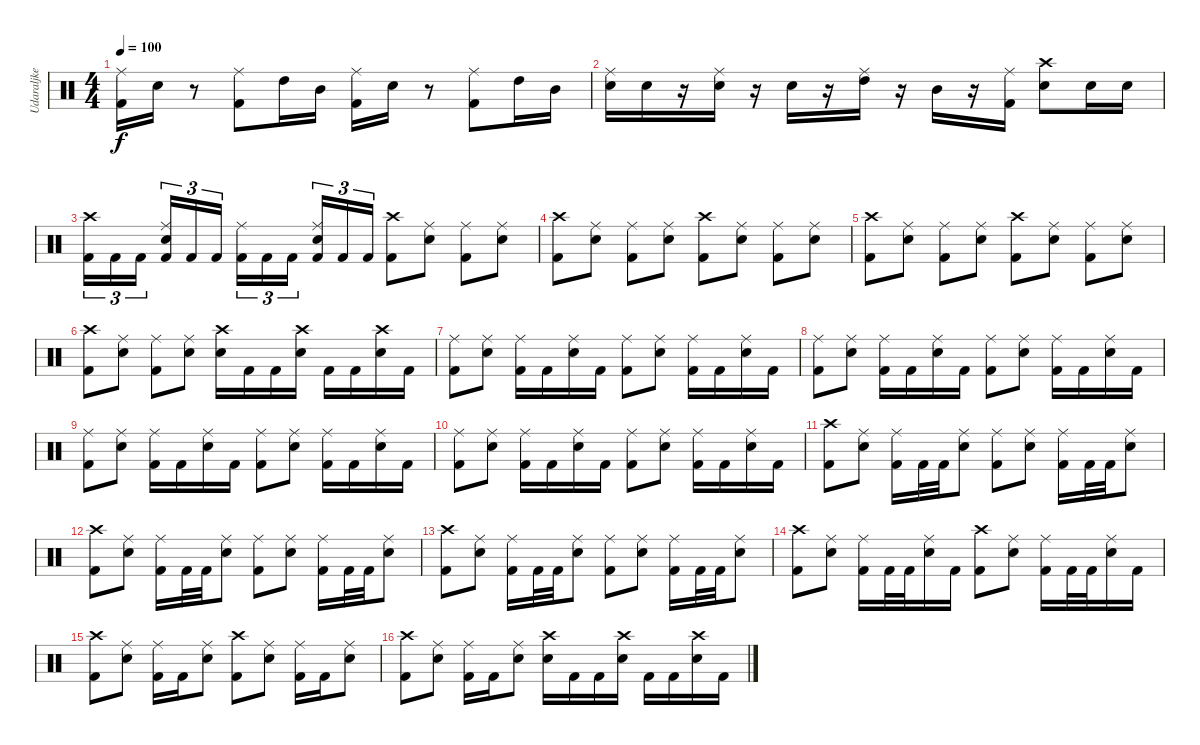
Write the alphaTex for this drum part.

\track ("Udaraljke" "Udaraljke") {instrument percussion}
\staff {score}
\articulation defaults
\ts (4 4)
\tempo 100
\clef neutral
\ks c
("Kick (hit) 2" "Ride (middle)").16{dy f} "Snare (hit) 2".16 r.8 ("Kick (hit) 2" "Ride (middle)").8 "High Tom (hit)".16 "Mid Tom (hit)".16 ("Kick (hit) 2" "Ride (middle)").16 "Snare (hit) 2".16 r.8 ("Kick (hit) 2" "Ride (middle)").8 "High Tom (hit)".16 "Mid Tom (hit)".16 |
("Snare (hit) 2" "Ride (middle)").16 "Snare (hit) 2".16 r.16 ("Snare (hit) 2" "Ride (middle)").16 r.16 "Snare (hit) 2".16 r.16 ("High Tom (hit)" "Ride (middle)").16 r.16 "Mid Tom (hit)".16 r.16 ("Kick (hit) 2" "Ride (middle)").16 ("Snare (hit) 2" "Crash high (hit)").8 "Snare (hit) 2".16 "Snare (hit) 2".16 |
("Kick (hit) 2" "Crash high (hit)").16{tu (3 2)} "Kick (hit) 2".16{tu (3 2)} "Kick (hit) 2".16{tu (3 2)} ("Kick (hit) 2" "Snare (hit) 2" "Ride (middle)").16{tu (3 2)} "Kick (hit) 2".16{tu (3 2)} "Kick (hit) 2".16{tu (3 2)} ("Kick (hit) 2" "Ride (middle)").16{tu (3 2)} "Kick (hit) 2".16{tu (3 2)} "Kick (hit) 2".16{tu (3 2)} ("Kick (hit) 2" "Snare (hit) 2" "Ride (middle)").16{tu (3 2)} "Kick (hit) 2".16{tu (3 2)} "Kick (hit) 2".16{tu (3 2)} ("Kick (hit) 2" "Crash high (hit)").8 ("Snare (hit) 2" "Ride (middle)").8 ("Kick (hit) 2" "Ride (middle)").8 ("Snare (hit) 2" "Ride (middle)").8 |
("Kick (hit) 2" "Crash high (hit)").8 ("Snare (hit) 2" "Ride (middle)").8 ("Kick (hit) 2" "Ride (middle)").8 ("Snare (hit) 2" "Ride (middle)").8 ("Kick (hit) 2" "Crash high (hit)").8 ("Snare (hit) 2" "Ride (middle)").8 ("Kick (hit) 2" "Ride (middle)").8 ("Snare (hit) 2" "Ride (middle)").8 |
("Kick (hit) 2" "Crash high (hit)").8 ("Snare (hit) 2" "Ride (middle)").8 ("Kick (hit) 2" "Ride (middle)").8 ("Snare (hit) 2" "Ride (middle)").8 ("Kick (hit) 2" "Crash high (hit)").8 ("Snare (hit) 2" "Ride (middle)").8 ("Kick (hit) 2" "Ride (middle)").8 ("Snare (hit) 2" "Ride (middle)").8 |
("Kick (hit) 2" "Crash high (hit)").8 ("Snare (hit) 2" "Ride (middle)").8 ("Kick (hit) 2" "Ride (middle)").8 ("Snare (hit) 2" "Ride (middle)").8 ("Snare (hit) 2" "Crash high (hit)").16 "Kick (hit) 2".16 "Kick (hit) 2".16 ("Snare (hit) 2" "Crash high (hit)").16 "Kick (hit) 2".16 "Kick (hit) 2".16 ("Snare (hit) 2" "Crash high (hit)").16 "Kick (hit) 2".16 |
("Kick (hit) 2" "Ride (middle)").8 ("Snare (hit) 2" "Ride (middle)").8 ("Kick (hit) 2" "Ride (middle)").16 "Kick (hit) 2".16 ("Snare (hit) 2" "Ride (middle)").16 "Kick (hit) 2".16 ("Kick (hit) 2" "Ride (middle)").8 ("Snare (hit) 2" "Ride (middle)").8 ("Kick (hit) 2" "Ride (middle)").16 "Kick (hit) 2".16 ("Snare (hit) 2" "Ride (middle)").16 "Kick (hit) 2".16 |
("Kick (hit) 2" "Ride (middle)").8 ("Snare (hit) 2" "Ride (middle)").8 ("Kick (hit) 2" "Ride (middle)").16 "Kick (hit) 2".16 ("Snare (hit) 2" "Ride (middle)").16 "Kick (hit) 2".16 ("Kick (hit) 2" "Ride (middle)").8 ("Snare (hit) 2" "Ride (middle)").8 ("Kick (hit) 2" "Ride (middle)").16 "Kick (hit) 2".16 ("Snare (hit) 2" "Ride (middle)").16 "Kick (hit) 2".16 |
("Kick (hit) 2" "Ride (middle)").8 ("Snare (hit) 2" "Ride (middle)").8 ("Kick (hit) 2" "Ride (middle)").16 "Kick (hit) 2".16 ("Snare (hit) 2" "Ride (middle)").16 "Kick (hit) 2".16 ("Kick (hit) 2" "Ride (middle)").8 ("Snare (hit) 2" "Ride (middle)").8 ("Kick (hit) 2" "Ride (middle)").16 "Kick (hit) 2".16 ("Snare (hit) 2" "Ride (middle)").16 "Kick (hit) 2".16 |
("Kick (hit) 2" "Ride (middle)").8 ("Snare (hit) 2" "Ride (middle)").8 ("Kick (hit) 2" "Ride (middle)").16 "Kick (hit) 2".16 ("Snare (hit) 2" "Ride (middle)").16 "Kick (hit) 2".16 ("Kick (hit) 2" "Ride (middle)").8 ("Snare (hit) 2" "Ride (middle)").8 ("Kick (hit) 2" "Ride (middle)").16 "Kick (hit) 2".16 ("Snare (hit) 2" "Ride (middle)").16 "Kick (hit) 2".16 |
("Kick (hit) 2" "Crash high (hit)").8 ("Snare (hit) 2" "Ride (middle)").8 ("Kick (hit) 2" "Ride (middle)").16 "Kick (hit) 2".32 "Kick (hit) 2".32 ("Snare (hit) 2" "Ride (middle)").8 ("Kick (hit) 2" "Ride (middle)").8 ("Snare (hit) 2" "Ride (middle)").8 ("Kick (hit) 2" "Ride (middle)").16 "Kick (hit) 2".32 "Kick (hit) 2".32 ("Snare (hit) 2" "Ride (middle)").8 |
("Kick (hit) 2" "Crash high (hit)").8 ("Snare (hit) 2" "Ride (middle)").8 ("Kick (hit) 2" "Ride (middle)").16 "Kick (hit) 2".32 "Kick (hit) 2".32 ("Snare (hit) 2" "Ride (middle)").8 ("Kick (hit) 2" "Ride (middle)").8 ("Snare (hit) 2" "Ride (middle)").8 ("Kick (hit) 2" "Ride (middle)").16 "Kick (hit) 2".32 "Kick (hit) 2".32 ("Snare (hit) 2" "Ride (middle)").8 |
("Kick (hit) 2" "Crash high (hit)").8 ("Snare (hit) 2" "Ride (middle)").8 ("Kick (hit) 2" "Ride (middle)").16 "Kick (hit) 2".32 "Kick (hit) 2".32 ("Snare (hit) 2" "Ride (middle)").8 ("Kick (hit) 2" "Ride (middle)").8 ("Snare (hit) 2" "Ride (middle)").8 ("Kick (hit) 2" "Ride (middle)").16 "Kick (hit) 2".32 "Kick (hit) 2".32 ("Snare (hit) 2" "Ride (middle)").8 |
("Kick (hit) 2" "Crash high (hit)").8 ("Snare (hit) 2" "Ride (middle)").8 ("Kick (hit) 2" "Ride (middle)").16 "Kick (hit) 2".32 "Kick (hit) 2".32 ("Snare (hit) 2" "Ride (middle)").16 "Kick (hit) 2".16 ("Kick (hit) 2" "Crash high (hit)").8 ("Snare (hit) 2" "Ride (middle)").8 ("Kick (hit) 2" "Ride (middle)").16 "Kick (hit) 2".32 "Kick (hit) 2".32 ("Snare (hit) 2" "Ride (middle)").16 "Kick (hit) 2".16 |
("Kick (hit) 2" "Crash high (hit)").8 ("Snare (hit) 2" "Ride (middle)").8 ("Kick (hit) 2" "Ride (middle)").16 "Kick (hit) 2".16 ("Snare (hit) 2" "Ride (middle)").8 ("Kick (hit) 2" "Crash high (hit)").8 ("Snare (hit) 2" "Ride (middle)").8 ("Kick (hit) 2" "Ride (middle)").16 "Kick (hit) 2".16 ("Snare (hit) 2" "Ride (middle)").8 |
("Kick (hit) 2" "Crash high (hit)").8 ("Snare (hit) 2" "Ride (middle)").8 ("Kick (hit) 2" "Ride (middle)").16 "Kick (hit) 2".16 ("Snare (hit) 2" "Ride (middle)").8 ("Snare (hit) 2" "Crash high (hit)").16 "Kick (hit) 2".16 "Kick (hit) 2".16 ("Snare (hit) 2" "Crash high (hit)").16 "Kick (hit) 2".16 "Kick (hit) 2".16 ("Snare (hit) 2" "Crash high (hit)").16 "Kick (hit) 2".16
